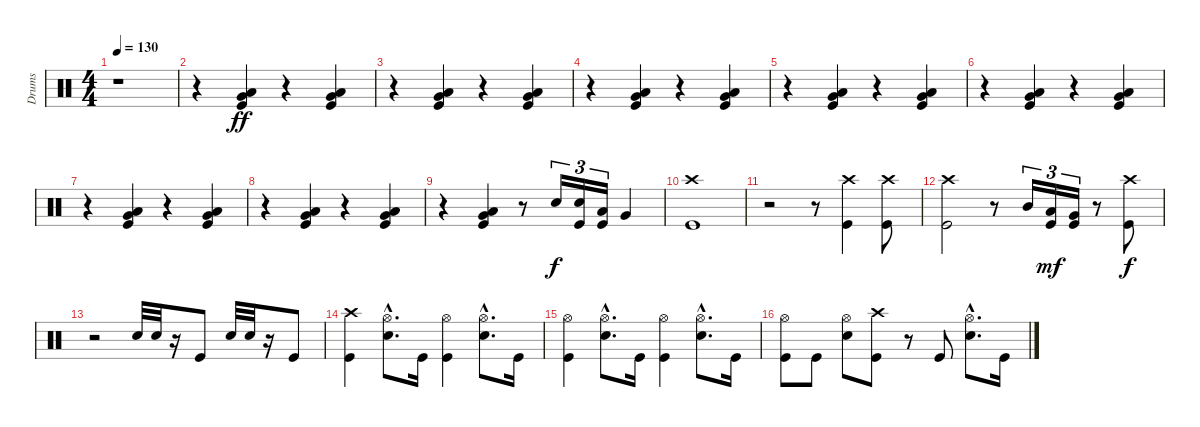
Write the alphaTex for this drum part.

\track ("Drums" "Drums") {instrument percussion}
\staff {score}
\articulation defaults
\ts (4 4)
\tempo 130
\clef neutral
\ks c
r.1{dy ff} |
r.4 ("Very Low Tom (hit)" "Low Tom (hit)" "Kick (hit)").4 r.4 ("Very Low Tom (hit)" "Low Tom (hit)" "Kick (hit)").4 |
r.4 ("Very Low Tom (hit)" "Low Tom (hit)" "Kick (hit)").4 r.4 ("Very Low Tom (hit)" "Low Tom (hit)" "Kick (hit)").4 |
r.4 ("Very Low Tom (hit)" "Low Tom (hit)" "Kick (hit)").4 r.4 ("Very Low Tom (hit)" "Low Tom (hit)" "Kick (hit)").4 |
r.4 ("Very Low Tom (hit)" "Low Tom (hit)" "Kick (hit)").4 r.4 ("Very Low Tom (hit)" "Low Tom (hit)" "Kick (hit)").4 |
r.4 ("Very Low Tom (hit)" "Low Tom (hit)" "Kick (hit)").4 r.4 ("Very Low Tom (hit)" "Low Tom (hit)" "Kick (hit)").4 |
r.4 ("Very Low Tom (hit)" "Low Tom (hit)" "Kick (hit)").4 r.4 ("Very Low Tom (hit)" "Low Tom (hit)" "Kick (hit)").4 |
r.4 ("Very Low Tom (hit)" "Low Tom (hit)" "Kick (hit)").4 r.4 ("Very Low Tom (hit)" "Low Tom (hit)" "Kick (hit)").4 |
r.4 ("Very Low Tom (hit)" "Low Tom (hit)" "Kick (hit)").4 r.8 "Snare (hit) 2".16{tu (3 2) dy f} ("Snare (hit) 2" "Kick (hit)").16{tu (3 2)} ("Low Tom (hit)" "Kick (hit)").16{tu (3 2)} "Very Low Tom (hit)".4 |
("Crash high (hit)" "Kick (hit)").1 |
r.2 r.8 ("Crash high (hit)" "Kick (hit)").4 ("Crash high (hit)" "Kick (hit)").8 |
("Crash high (hit)" "Kick (hit)").2 r.8 "Mid Tom (hit)".16{tu (3 2)} ("Low Tom (hit)" "Kick (hit)").16{tu (3 2) dy mf} ("Very Low Tom (hit)" "Kick (hit)").16{tu (3 2)} r.8 ("Crash high (hit)" "Kick (hit)").8{dy f} |
r.2 "Snare (hit) 2".32 "Snare (hit) 2".32 r.16 "Kick (hit)".8 "Snare (hit) 2".32 "Snare (hit) 2".32 r.16 "Kick (hit)".8 |
("Crash high (hit)" "Kick (hit)").4 ("Hi-Hat (open)"{hac} "Snare (hit) 2"{hac}).8{d} "Kick (hit)".16 ("Hi-Hat (open)" "Kick (hit)").4 ("Hi-Hat (open)"{hac} "Snare (hit) 2"{hac}).8{d} "Kick (hit)".16 |
("Hi-Hat (open)" "Kick (hit)").4 ("Hi-Hat (open)"{hac} "Snare (hit) 2"{hac}).8{d} "Kick (hit)".16 ("Hi-Hat (open)" "Kick (hit)").4 ("Hi-Hat (open)"{hac} "Snare (hit) 2"{hac}).8{d} "Kick (hit)".16 |
("Hi-Hat (open)" "Kick (hit)").8 "Kick (hit)".8 ("Hi-Hat (open)" "Snare (hit) 2").8 ("Crash high (hit)" "Kick (hit)").8 r.8 "Kick (hit)".8 ("Hi-Hat (open)"{hac} "Snare (hit) 2"{hac}).8{d} "Kick (hit)".16
